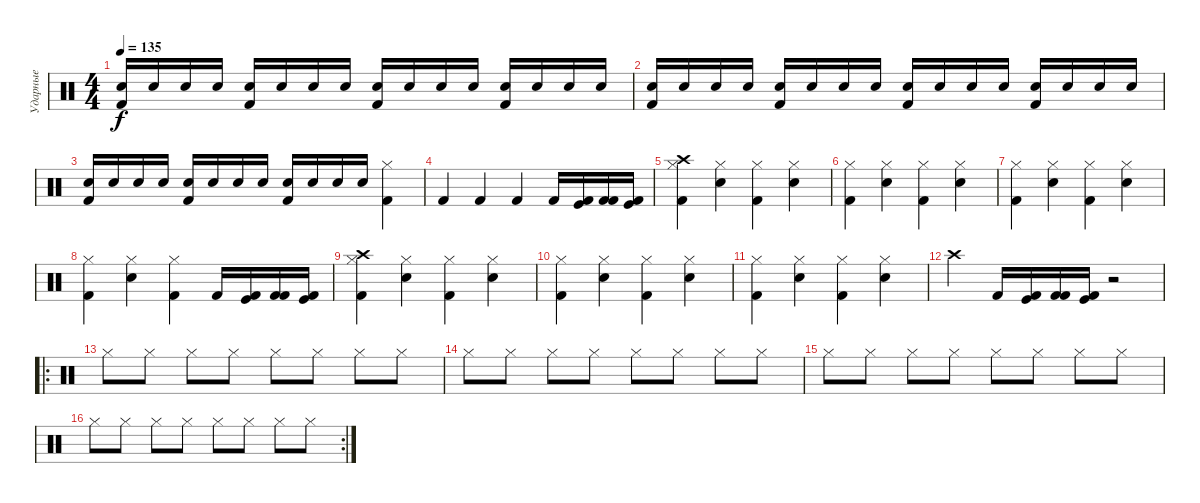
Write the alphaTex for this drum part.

\track ("Ударные" "Ударные") {instrument percussion}
\staff {score}
\articulation defaults
\ts (4 4)
\tempo 135
\clef neutral
\ks c
("Snare (hit) 2" "Kick (hit) 2").16{dy f} "Snare (hit) 2".16 "Snare (hit) 2".16 "Snare (hit) 2".16 ("Snare (hit) 2" "Kick (hit) 2").16 "Snare (hit) 2".16 "Snare (hit) 2".16 "Snare (hit) 2".16 ("Snare (hit) 2" "Kick (hit) 2").16 "Snare (hit) 2".16 "Snare (hit) 2".16 "Snare (hit) 2".16 ("Snare (hit) 2" "Kick (hit) 2").16 "Snare (hit) 2".16 "Snare (hit) 2".16 "Snare (hit) 2".16 |
("Snare (hit) 2" "Kick (hit) 2").16 "Snare (hit) 2".16 "Snare (hit) 2".16 "Snare (hit) 2".16 ("Snare (hit) 2" "Kick (hit) 2").16 "Snare (hit) 2".16 "Snare (hit) 2".16 "Snare (hit) 2".16 ("Snare (hit) 2" "Kick (hit) 2").16 "Snare (hit) 2".16 "Snare (hit) 2".16 "Snare (hit) 2".16 ("Snare (hit) 2" "Kick (hit) 2").16 "Snare (hit) 2".16 "Snare (hit) 2".16 "Snare (hit) 2".16 |
("Snare (hit) 2" "Kick (hit) 2").16 "Snare (hit) 2".16 "Snare (hit) 2".16 "Snare (hit) 2".16 ("Snare (hit) 2" "Kick (hit) 2").16 "Snare (hit) 2".16 "Snare (hit) 2".16 "Snare (hit) 2".16 ("Snare (hit) 2" "Kick (hit) 2").16 "Snare (hit) 2".16 "Snare (hit) 2".16 "Snare (hit) 2".16 ("Hi-Hat (closed)" "Kick (hit) 2").4 |
"Kick (hit) 2".4 "Kick (hit) 2".4 "Kick (hit) 2".4 "Kick (hit) 2".16 ("Kick (hit)" "Kick (hit) 2").16 ("Kick (hit) 2" "Kick (hit) 2").16 ("Kick (hit)" "Kick (hit) 2").16 |
("Crash high (hit)" "Kick (hit) 2" "Hi-Hat (closed)").4 ("Snare (hit) 2" "Hi-Hat (closed)").4 ("Kick (hit) 2" "Hi-Hat (closed)").4 ("Snare (hit) 2" "Hi-Hat (closed)").4 |
("Kick (hit) 2" "Hi-Hat (closed)").4 ("Snare (hit) 2" "Hi-Hat (closed)").4 ("Kick (hit) 2" "Hi-Hat (closed)").4 ("Snare (hit) 2" "Hi-Hat (closed)").4 |
("Kick (hit) 2" "Hi-Hat (closed)").4 ("Snare (hit) 2" "Hi-Hat (closed)").4 ("Kick (hit) 2" "Hi-Hat (closed)").4 ("Snare (hit) 2" "Hi-Hat (closed)").4 |
("Kick (hit) 2" "Hi-Hat (closed)").4 ("Snare (hit) 2" "Hi-Hat (closed)").4 ("Kick (hit) 2" "Hi-Hat (closed)").4 "Kick (hit) 2".16 ("Kick (hit)" "Kick (hit) 2").16 ("Kick (hit) 2" "Kick (hit) 2").16 ("Kick (hit)" "Kick (hit) 2").16 |
("Crash high (hit)" "Kick (hit) 2" "Hi-Hat (closed)").4 ("Snare (hit) 2" "Hi-Hat (closed)").4 ("Kick (hit) 2" "Hi-Hat (closed)").4 ("Snare (hit) 2" "Hi-Hat (closed)").4 |
("Kick (hit) 2" "Hi-Hat (closed)").4 ("Snare (hit) 2" "Hi-Hat (closed)").4 ("Kick (hit) 2" "Hi-Hat (closed)").4 ("Snare (hit) 2" "Hi-Hat (closed)").4 |
("Kick (hit) 2" "Hi-Hat (closed)").4 ("Snare (hit) 2" "Hi-Hat (closed)").4 ("Kick (hit) 2" "Hi-Hat (closed)").4 ("Snare (hit) 2" "Hi-Hat (closed)").4 |
"Crash high (hit)".4 "Kick (hit) 2".16 ("Kick (hit)" "Kick (hit) 2").16 ("Kick (hit) 2" "Kick (hit) 2").16 ("Kick (hit)" "Kick (hit) 2").16 r.2 |
\ro "Hi-Hat (closed)".8 "Hi-Hat (closed)".8 "Hi-Hat (closed)".8 "Hi-Hat (closed)".8 "Hi-Hat (closed)".8 "Hi-Hat (closed)".8 "Hi-Hat (closed)".8 "Hi-Hat (closed)".8
|
"Hi-Hat (closed)".8 "Hi-Hat (closed)".8 "Hi-Hat (closed)".8 "Hi-Hat (closed)".8 "Hi-Hat (closed)".8 "Hi-Hat (closed)".8 "Hi-Hat (closed)".8 "Hi-Hat (closed)".8 |
"Hi-Hat (closed)".8 "Hi-Hat (closed)".8 "Hi-Hat (closed)".8 "Hi-Hat (closed)".8 "Hi-Hat (closed)".8 "Hi-Hat (closed)".8 "Hi-Hat (closed)".8 "Hi-Hat (closed)".8 |
\rc 2 "Hi-Hat (closed)".8 "Hi-Hat (closed)".8 "Hi-Hat (closed)".8 "Hi-Hat (closed)".8 "Hi-Hat (closed)".8 "Hi-Hat (closed)".8 "Hi-Hat (closed)".8 "Hi-Hat (closed)".8
